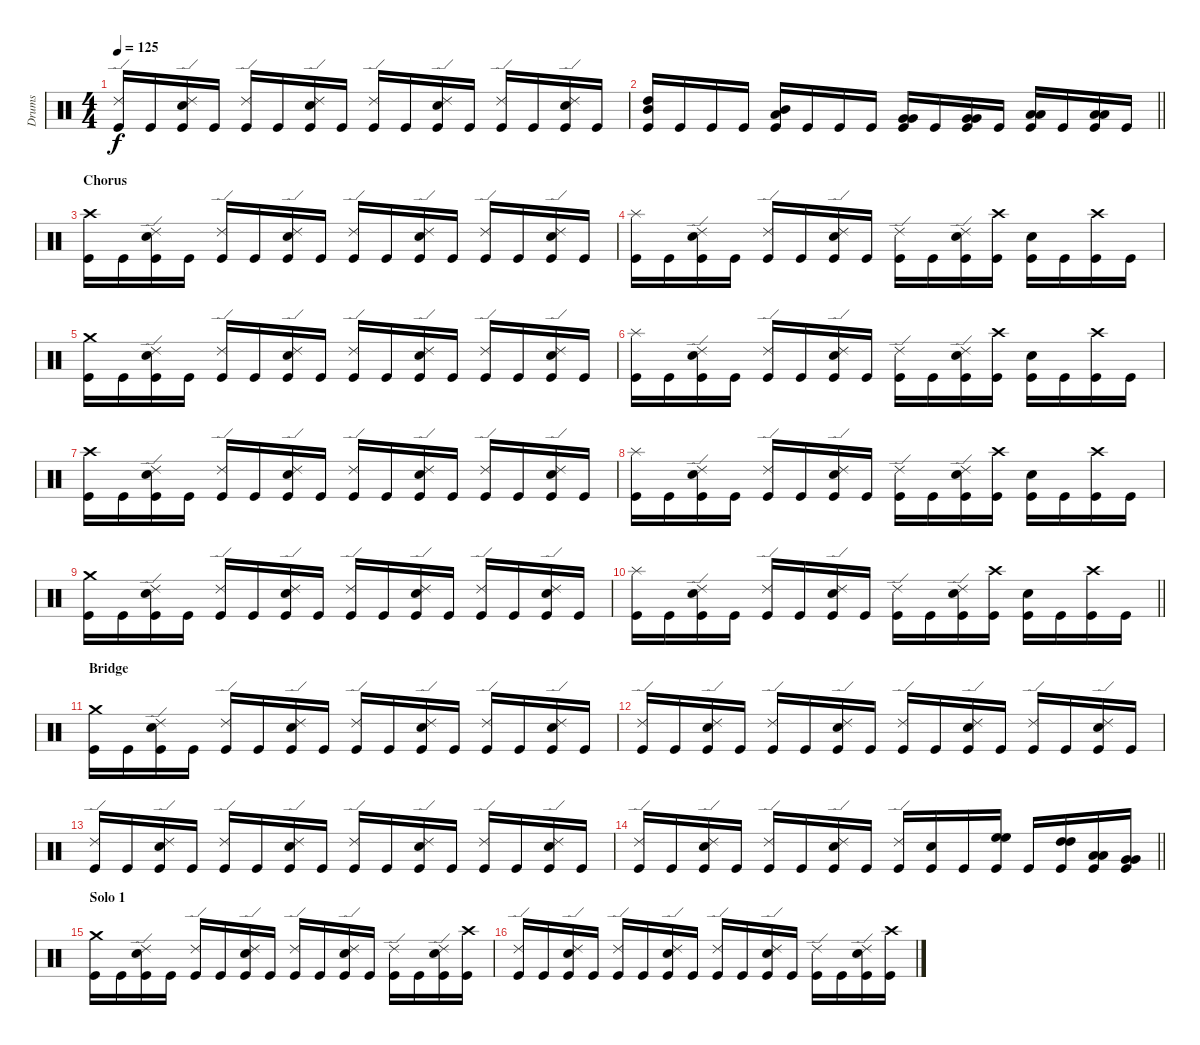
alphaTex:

\track ("Drums" "Drums") {instrument percussion}
\staff {score}
\articulation defaults
\ts (4 4)
\tempo 125
\clef neutral
\ks c
("Ride (edge) 2" "Kick (hit)").16{dy f} "Kick (hit)".16 ("Ride (edge) 2" "Snare (hit) 2" "Kick (hit)").16 "Kick (hit)".16 ("Ride (edge) 2" "Kick (hit)").16 "Kick (hit)".16 ("Ride (edge) 2" "Snare (hit) 2" "Kick (hit)").16 "Kick (hit)".16 ("Ride (edge) 2" "Kick (hit)").16 "Kick (hit)".16 ("Ride (edge) 2" "Snare (hit) 2" "Kick (hit)").16 "Kick (hit)".16 ("Ride (edge) 2" "Kick (hit)").16 "Kick (hit)".16 ("Ride (edge) 2" "Snare (hit) 2" "Kick (hit)").16 "Kick (hit)".16 |
\barLineRight lightlight
("High Tom (hit)" "Mid Tom (hit)" "Kick (hit)").16 "Kick (hit)".16 "Kick (hit)".16 "Kick (hit)".16 ("Mid Tom (hit)" "Low Tom (hit)" "Kick (hit)").16 "Kick (hit)".16 "Kick (hit)".16 "Kick (hit)".16 ("Very Low Tom (hit)" "Very Low Tom (hit)" "Kick (hit)").16 "Kick (hit)".16 ("Very Low Tom (hit)" "Very Low Tom (hit)" "Kick (hit)").16 "Kick (hit)".16 ("Low Floor Tom (hit)" "Low Floor Tom (hit)" "Kick (hit)").16 "Kick (hit)".16 ("Low Floor Tom (hit)" "Low Floor Tom (hit)" "Kick (hit)").16 "Kick (hit)".16 |
\section ("" "Chorus")
("Crash high (hit)" "Kick (hit)").16 "Kick (hit)".16 ("Ride (edge) 2" "Snare (hit) 2" "Kick (hit)").16 "Kick (hit)".16 ("Ride (edge) 2" "Kick (hit)").16 "Kick (hit)".16 ("Ride (edge) 2" "Snare (hit) 2" "Kick (hit)").16 "Kick (hit)".16 ("Ride (edge) 2" "Kick (hit)").16 "Kick (hit)".16 ("Ride (edge) 2" "Snare (hit) 2" "Kick (hit)").16 "Kick (hit)".16 ("Ride (edge) 2" "Kick (hit)").16 "Kick (hit)".16 ("Ride (edge) 2" "Snare (hit) 2" "Kick (hit)").16 "Kick (hit)".16 |
("Splash (hit)" "Kick (hit)").16 "Kick (hit)".16 ("Ride (edge) 2" "Snare (hit) 2" "Kick (hit)").16 "Kick (hit)".16 ("Ride (edge) 2" "Kick (hit)").16 "Kick (hit)".16 ("Ride (edge) 2" "Snare (hit) 2" "Kick (hit)").16 "Kick (hit)".16 ("Ride (edge) 2" "Kick (hit)").16 "Kick (hit)".16 ("Ride (edge) 2" "Snare (hit) 2" "Kick (hit)").16 ("Crash high (hit)" "Kick (hit)").16 ("Snare (hit) 2" "Kick (hit)").16 "Kick (hit)".16 ("Crash high (hit)" "Kick (hit)").16 "Kick (hit)".16 |
("Crash medium (hit)" "Kick (hit)").16 "Kick (hit)".16 ("Ride (edge) 2" "Snare (hit) 2" "Kick (hit)").16 "Kick (hit)".16 ("Ride (edge) 2" "Kick (hit)").16 "Kick (hit)".16 ("Ride (edge) 2" "Snare (hit) 2" "Kick (hit)").16 "Kick (hit)".16 ("Ride (edge) 2" "Kick (hit)").16 "Kick (hit)".16 ("Ride (edge) 2" "Snare (hit) 2" "Kick (hit)").16 "Kick (hit)".16 ("Ride (edge) 2" "Kick (hit)").16 "Kick (hit)".16 ("Ride (edge) 2" "Snare (hit) 2" "Kick (hit)").16 "Kick (hit)".16 |
("Splash (hit)" "Kick (hit)").16 "Kick (hit)".16 ("Ride (edge) 2" "Snare (hit) 2" "Kick (hit)").16 "Kick (hit)".16 ("Ride (edge) 2" "Kick (hit)").16 "Kick (hit)".16 ("Ride (edge) 2" "Snare (hit) 2" "Kick (hit)").16 "Kick (hit)".16 ("Ride (edge) 2" "Kick (hit)").16 "Kick (hit)".16 ("Ride (edge) 2" "Snare (hit) 2" "Kick (hit)").16 ("Crash high (hit)" "Kick (hit)").16 ("Snare (hit) 2" "Kick (hit)").16 "Kick (hit)".16 ("Crash high (hit)" "Kick (hit)").16 "Kick (hit)".16 |
("Crash high (hit)" "Kick (hit)").16 "Kick (hit)".16 ("Ride (edge) 2" "Snare (hit) 2" "Kick (hit)").16 "Kick (hit)".16 ("Ride (edge) 2" "Kick (hit)").16 "Kick (hit)".16 ("Ride (edge) 2" "Snare (hit) 2" "Kick (hit)").16 "Kick (hit)".16 ("Ride (edge) 2" "Kick (hit)").16 "Kick (hit)".16 ("Ride (edge) 2" "Snare (hit) 2" "Kick (hit)").16 "Kick (hit)".16 ("Ride (edge) 2" "Kick (hit)").16 "Kick (hit)".16 ("Ride (edge) 2" "Snare (hit) 2" "Kick (hit)").16 "Kick (hit)".16 |
("Splash (hit)" "Kick (hit)").16 "Kick (hit)".16 ("Ride (edge) 2" "Snare (hit) 2" "Kick (hit)").16 "Kick (hit)".16 ("Ride (edge) 2" "Kick (hit)").16 "Kick (hit)".16 ("Ride (edge) 2" "Snare (hit) 2" "Kick (hit)").16 "Kick (hit)".16 ("Ride (edge) 2" "Kick (hit)").16 "Kick (hit)".16 ("Ride (edge) 2" "Snare (hit) 2" "Kick (hit)").16 ("Crash high (hit)" "Kick (hit)").16 ("Snare (hit) 2" "Kick (hit)").16 "Kick (hit)".16 ("Crash high (hit)" "Kick (hit)").16 "Kick (hit)".16 |
("Crash medium (hit)" "Kick (hit)").16 "Kick (hit)".16 ("Ride (edge) 2" "Snare (hit) 2" "Kick (hit)").16 "Kick (hit)".16 ("Ride (edge) 2" "Kick (hit)").16 "Kick (hit)".16 ("Ride (edge) 2" "Snare (hit) 2" "Kick (hit)").16 "Kick (hit)".16 ("Ride (edge) 2" "Kick (hit)").16 "Kick (hit)".16 ("Ride (edge) 2" "Snare (hit) 2" "Kick (hit)").16 "Kick (hit)".16 ("Ride (edge) 2" "Kick (hit)").16 "Kick (hit)".16 ("Ride (edge) 2" "Snare (hit) 2" "Kick (hit)").16 "Kick (hit)".16 |
\barLineRight lightlight
("Splash (hit)" "Kick (hit)").16 "Kick (hit)".16 ("Ride (edge) 2" "Snare (hit) 2" "Kick (hit)").16 "Kick (hit)".16 ("Ride (edge) 2" "Kick (hit)").16 "Kick (hit)".16 ("Ride (edge) 2" "Snare (hit) 2" "Kick (hit)").16 "Kick (hit)".16 ("Ride (edge) 2" "Kick (hit)").16 "Kick (hit)".16 ("Ride (edge) 2" "Snare (hit) 2" "Kick (hit)").16 ("Crash high (hit)" "Kick (hit)").16 ("Snare (hit) 2" "Kick (hit)").16 "Kick (hit)".16 ("Crash high (hit)" "Kick (hit)").16 "Kick (hit)".16 |
\section ("" "Bridge")
("Crash medium (hit)" "Kick (hit)").16 "Kick (hit)".16 ("Ride (edge) 2" "Snare (hit) 2" "Kick (hit)").16 "Kick (hit)".16 ("Ride (edge) 2" "Kick (hit)").16 "Kick (hit)".16 ("Ride (edge) 2" "Snare (hit) 2" "Kick (hit)").16 "Kick (hit)".16 ("Ride (edge) 2" "Kick (hit)").16 "Kick (hit)".16 ("Ride (edge) 2" "Snare (hit) 2" "Kick (hit)").16 "Kick (hit)".16 ("Ride (edge) 2" "Kick (hit)").16 "Kick (hit)".16 ("Ride (edge) 2" "Snare (hit) 2" "Kick (hit)").16 "Kick (hit)".16 |
("Ride (edge) 2" "Kick (hit)").16 "Kick (hit)".16 ("Ride (edge) 2" "Snare (hit) 2" "Kick (hit)").16 "Kick (hit)".16 ("Ride (edge) 2" "Kick (hit)").16 "Kick (hit)".16 ("Ride (edge) 2" "Snare (hit) 2" "Kick (hit)").16 "Kick (hit)".16 ("Ride (edge) 2" "Kick (hit)").16 "Kick (hit)".16 ("Ride (edge) 2" "Snare (hit) 2" "Kick (hit)").16 "Kick (hit)".16 ("Ride (edge) 2" "Kick (hit)").16 "Kick (hit)".16 ("Ride (edge) 2" "Snare (hit) 2" "Kick (hit)").16 "Kick (hit)".16 |
("Ride (edge) 2" "Kick (hit)").16 "Kick (hit)".16 ("Ride (edge) 2" "Snare (hit) 2" "Kick (hit)").16 "Kick (hit)".16 ("Ride (edge) 2" "Kick (hit)").16 "Kick (hit)".16 ("Ride (edge) 2" "Snare (hit) 2" "Kick (hit)").16 "Kick (hit)".16 ("Ride (edge) 2" "Kick (hit)").16 "Kick (hit)".16 ("Ride (edge) 2" "Snare (hit) 2" "Kick (hit)").16 "Kick (hit)".16 ("Ride (edge) 2" "Kick (hit)").16 "Kick (hit)".16 ("Ride (edge) 2" "Snare (hit) 2" "Kick (hit)").16 "Kick (hit)".16 |
\barLineRight lightlight
("Ride (edge) 2" "Kick (hit)").16 "Kick (hit)".16 ("Ride (edge) 2" "Snare (hit) 2" "Kick (hit)").16 "Kick (hit)".16 ("Ride (edge) 2" "Kick (hit)").16 "Kick (hit)".16 ("Ride (edge) 2" "Snare (hit) 2" "Kick (hit)").16 "Kick (hit)".16 ("Ride (edge) 2" "Kick (hit)").16 ("Snare (hit) 2" "Kick (hit)").16 "Kick (hit)".16 ("High Floor Tom (hit)" "High Floor Tom (hit)" "Kick (hit)").16 "Kick (hit)".16 ("High Tom (hit)" "High Tom (hit)" "Kick (hit)").16 ("Low Tom (hit)" "Low Tom (hit)" "Kick (hit)").16 ("Very Low Tom (hit)" "Very Low Tom (hit)" "Kick (hit)").16 |
\section ("" "Solo 1")
("Crash medium (hit)" "Kick (hit)").16 "Kick (hit)".16 ("Ride (edge) 2" "Snare (hit) 2" "Kick (hit)").16 "Kick (hit)".16 ("Ride (edge) 2" "Kick (hit)").16 "Kick (hit)".16 ("Ride (edge) 2" "Snare (hit) 2" "Kick (hit)").16 "Kick (hit)".16 ("Ride (edge) 2" "Kick (hit)").16 "Kick (hit)".16 ("Ride (edge) 2" "Snare (hit) 2" "Kick (hit)").16 "Kick (hit)".16 ("Ride (edge) 2" "Kick (hit)").16 "Kick (hit)".16 ("Ride (edge) 2" "Snare (hit) 2" "Kick (hit)").16 ("Crash high (hit)" "Kick (hit)").16 |
("Ride (edge) 2" "Kick (hit)").16 "Kick (hit)".16 ("Ride (edge) 2" "Snare (hit) 2" "Kick (hit)").16 "Kick (hit)".16 ("Ride (edge) 2" "Kick (hit)").16 "Kick (hit)".16 ("Ride (edge) 2" "Snare (hit) 2" "Kick (hit)").16 "Kick (hit)".16 ("Ride (edge) 2" "Kick (hit)").16 "Kick (hit)".16 ("Ride (edge) 2" "Snare (hit) 2" "Kick (hit)").16 "Kick (hit)".16 ("Ride (edge) 2" "Kick (hit)").16 "Kick (hit)".16 ("Ride (edge) 2" "Snare (hit) 2" "Kick (hit)").16 ("Crash high (hit)" "Kick (hit)").16
